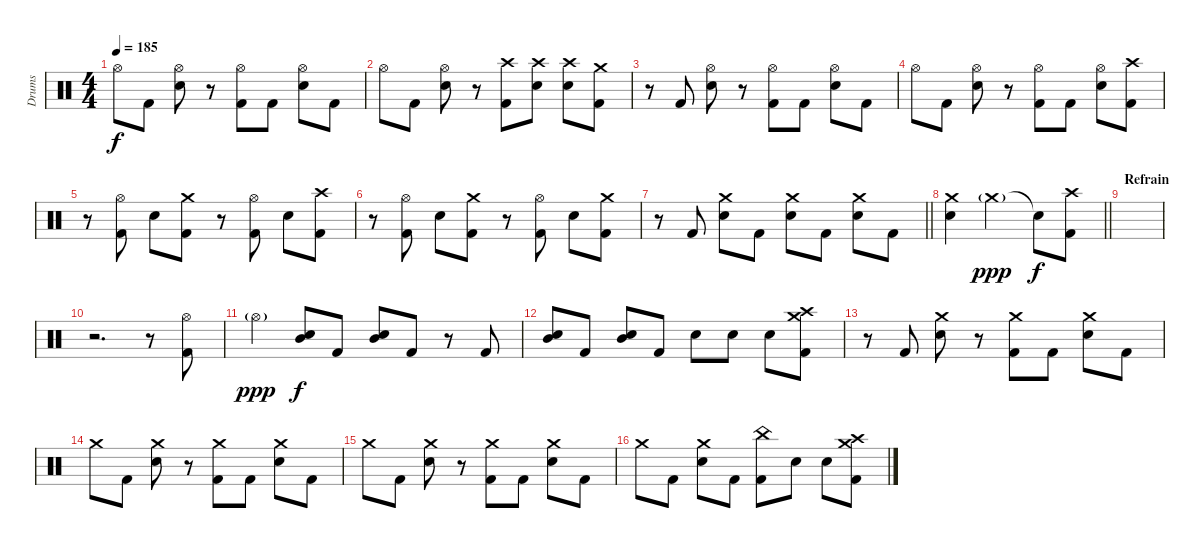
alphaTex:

\track ("Drums" "Drums") {instrument percussion}
\staff {score}
\articulation defaults
\ts (4 4)
\tempo 185
\clef neutral
\ks c "Hi-Hat (open)".8{dy f} "Kick (hit) 2".8
("Hi-Hat (open)" "Electric Snare (hit)").8 r.8 ("Hi-Hat (open)" "Kick (hit) 2").8 "Kick (hit) 2".8 ("Hi-Hat (open)" "Electric Snare (hit)").8 "Kick (hit) 2".8 |
"Hi-Hat (open)".8 "Kick (hit) 2".8 ("Hi-Hat (open)" "Electric Snare (hit)").8 r.8 ("Crash high (hit)" "Kick (hit) 2").8 ("Crash high (hit)" "Electric Snare (hit)").8 ("Crash high (hit)" "Electric Snare (hit)").8 ("Crash medium (hit)" "Kick (hit) 2").8 |
r.8 "Kick (hit) 2".8 ("Hi-Hat (open)" "Electric Snare (hit)").8 r.8 ("Hi-Hat (open)" "Kick (hit) 2").8 "Kick (hit) 2".8 ("Hi-Hat (open)" "Electric Snare (hit)").8 "Kick (hit) 2".8 |
"Hi-Hat (open)".8 "Kick (hit) 2".8 ("Hi-Hat (open)" "Electric Snare (hit)").8 r.8 ("Hi-Hat (open)" "Kick (hit) 2").8 "Kick (hit) 2".8 ("Hi-Hat (open)" "Electric Snare (hit)").8 ("Crash high (hit)" "Kick (hit) 2").8 |
r.8 ("Hi-Hat (open)" "Kick (hit) 2").8 "Electric Snare (hit)".8 ("Crash medium (hit)" "Kick (hit) 2").8 r.8 ("Hi-Hat (open)" "Kick (hit) 2").8 "Electric Snare (hit)".8 ("Crash high (hit)" "Kick (hit) 2").8 |
r.8 ("Hi-Hat (open)" "Kick (hit) 2").8 "Electric Snare (hit)".8 ("Crash medium (hit)" "Kick (hit) 2").8 r.8 ("Hi-Hat (open)" "Kick (hit) 2").8 "Electric Snare (hit)".8 ("Crash medium (hit)" "Kick (hit) 2").8 |
\barLineRight lightlight
r.8 "Kick (hit) 2".8 ("Crash medium (hit)" "Electric Snare (hit)").8 "Kick (hit) 2".8 ("Crash medium (hit)" "Electric Snare (hit)").8 "Kick (hit) 2".8 ("Crash medium (hit)" "Electric Snare (hit)").8 "Kick (hit) 2".8 |
\barLineRight lightlight
("Crash medium (hit)" "Electric Snare (hit)").4 "Crash medium (hit)"{g}.2{dy ppp} "Snare (hit)"{t}.8{dy f} ("Crash high (hit)" "Kick (hit) 2").8 |
\section ("" "Refrain")
|
r.2{d} r.8 ("Hi-Hat (open)" "Kick (hit) 2").8 |
"Hi-Hat (open)"{g}.4{dy ppp} ("Mid Tom (hit)" "Electric Snare (hit)").8{dy f} "Kick (hit) 2".8 ("Mid Tom (hit)" "Electric Snare (hit)").8 "Kick (hit) 2".8 r.8 "Kick (hit) 2".8 |
("Mid Tom (hit)" "Electric Snare (hit)").8 "Kick (hit) 2".8 ("Mid Tom (hit)" "Electric Snare (hit)").8 "Kick (hit) 2".8 "Electric Snare (hit)".8 "Electric Snare (hit)".8 "Electric Snare (hit)".8 ("Crash medium (hit)" "Crash high (hit)" "Kick (hit) 2").8 |
r.8 "Kick (hit) 2".8 ("Crash medium (hit)" "Electric Snare (hit)").8 r.8 ("Crash medium (hit)" "Kick (hit) 2").8 "Kick (hit) 2".8 ("Crash medium (hit)" "Electric Snare (hit)").8 "Kick (hit) 2".8 |
"Crash medium (hit)".8 "Kick (hit) 2".8 ("Crash medium (hit)" "Electric Snare (hit)").8 r.8 ("Crash medium (hit)" "Kick (hit) 2").8 "Kick (hit) 2".8 ("Crash medium (hit)" "Electric Snare (hit)").8 "Kick (hit) 2".8 |
"Crash medium (hit)".8 "Kick (hit) 2".8 ("Crash medium (hit)" "Electric Snare (hit)").8 r.8 ("Crash medium (hit)" "Kick (hit) 2").8 "Kick (hit) 2".8 ("Crash medium (hit)" "Electric Snare (hit)").8 "Kick (hit) 2".8 |
"Crash medium (hit)".8 "Kick (hit) 2".8 ("Crash medium (hit)" "Electric Snare (hit)").8 "Kick (hit) 2".8 ("China (hit)" "Kick (hit) 2").8 "Electric Snare (hit)".8 "Electric Snare (hit)".8 ("Crash medium (hit)" "Crash high (hit)" "Kick (hit) 2").8
